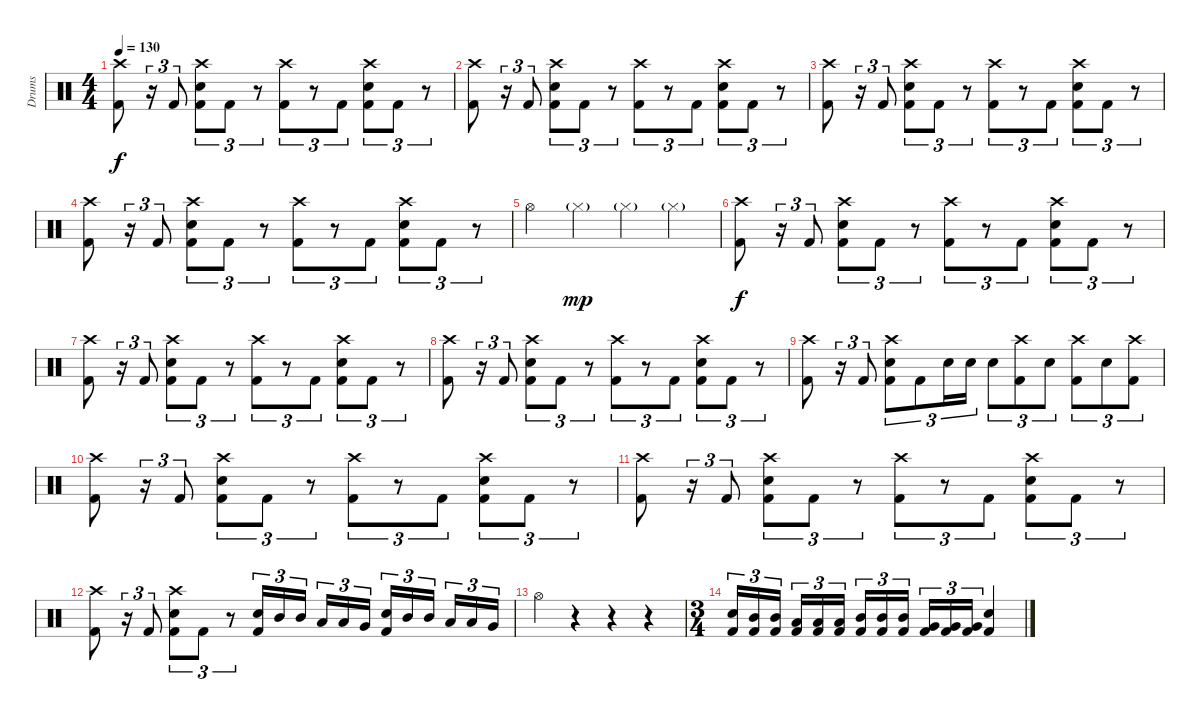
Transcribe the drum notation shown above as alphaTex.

\track ("Drums" "Drums") {instrument percussion}
\staff {score}
\articulation defaults
\ts (4 4)
\tempo 130
\clef neutral
\ks c
("Crash high (hit)" "Kick (hit) 2").8{dy f} r.16{tu (3 2)} "Kick (hit) 2".8{tu (3 2)} ("Crash high (hit)" "Electric Snare (hit)" "Kick (hit) 2").8{tu (3 2)} "Kick (hit) 2".8{tu (3 2)} r.8{tu (3 2)} ("Crash high (hit)" "Kick (hit) 2").8{tu (3 2)} r.8{tu (3 2)} "Kick (hit) 2".8{tu (3 2)} ("Crash high (hit)" "Electric Snare (hit)" "Kick (hit) 2").8{tu (3 2)} "Kick (hit) 2".8{tu (3 2)} r.8{tu (3 2)} |
("Crash high (hit)" "Kick (hit) 2").8 r.16{tu (3 2)} "Kick (hit) 2".8{tu (3 2)} ("Crash high (hit)" "Electric Snare (hit)" "Kick (hit) 2").8{tu (3 2)} "Kick (hit) 2".8{tu (3 2)} r.8{tu (3 2)} ("Crash high (hit)" "Kick (hit) 2").8{tu (3 2)} r.8{tu (3 2)} "Kick (hit) 2".8{tu (3 2)} ("Crash high (hit)" "Electric Snare (hit)" "Kick (hit) 2").8{tu (3 2)} "Kick (hit) 2".8{tu (3 2)} r.8{tu (3 2)} |
("Crash high (hit)" "Kick (hit) 2").8 r.16{tu (3 2)} "Kick (hit) 2".8{tu (3 2)} ("Crash high (hit)" "Electric Snare (hit)" "Kick (hit) 2").8{tu (3 2)} "Kick (hit) 2".8{tu (3 2)} r.8{tu (3 2)} ("Crash high (hit)" "Kick (hit) 2").8{tu (3 2)} r.8{tu (3 2)} "Kick (hit) 2".8{tu (3 2)} ("Crash high (hit)" "Electric Snare (hit)" "Kick (hit) 2").8{tu (3 2)} "Kick (hit) 2".8{tu (3 2)} r.8{tu (3 2)} |
("Crash high (hit)" "Kick (hit) 2").8 r.16{tu (3 2)} "Kick (hit) 2".8{tu (3 2)} ("Crash high (hit)" "Electric Snare (hit)" "Kick (hit) 2").8{tu (3 2)} "Kick (hit) 2".8{tu (3 2)} r.8{tu (3 2)} ("Crash high (hit)" "Kick (hit) 2").8{tu (3 2)} r.8{tu (3 2)} "Kick (hit) 2".8{tu (3 2)} ("Crash high (hit)" "Electric Snare (hit)" "Kick (hit) 2").8{tu (3 2)} "Kick (hit) 2".8{tu (3 2)} r.8{tu (3 2)} |
"Hi-Hat (open)".4 "Hi-Hat (closed)"{g}.4{dy mp} "Hi-Hat (closed)"{g}.4 "Hi-Hat (closed)"{g}.4 |
("Crash high (hit)" "Kick (hit) 2").8{dy f} r.16{tu (3 2)} "Kick (hit) 2".8{tu (3 2)} ("Crash high (hit)" "Electric Snare (hit)" "Kick (hit) 2").8{tu (3 2)} "Kick (hit) 2".8{tu (3 2)} r.8{tu (3 2)} ("Crash high (hit)" "Kick (hit) 2").8{tu (3 2)} r.8{tu (3 2)} "Kick (hit) 2".8{tu (3 2)} ("Crash high (hit)" "Electric Snare (hit)" "Kick (hit) 2").8{tu (3 2)} "Kick (hit) 2".8{tu (3 2)} r.8{tu (3 2)} |
("Crash high (hit)" "Kick (hit) 2").8 r.16{tu (3 2)} "Kick (hit) 2".8{tu (3 2)} ("Crash high (hit)" "Electric Snare (hit)" "Kick (hit) 2").8{tu (3 2)} "Kick (hit) 2".8{tu (3 2)} r.8{tu (3 2)} ("Crash high (hit)" "Kick (hit) 2").8{tu (3 2)} r.8{tu (3 2)} "Kick (hit) 2".8{tu (3 2)} ("Crash high (hit)" "Electric Snare (hit)" "Kick (hit) 2").8{tu (3 2)} "Kick (hit) 2".8{tu (3 2)} r.8{tu (3 2)} |
("Crash high (hit)" "Kick (hit) 2").8 r.16{tu (3 2)} "Kick (hit) 2".8{tu (3 2)} ("Crash high (hit)" "Electric Snare (hit)" "Kick (hit) 2").8{tu (3 2)} "Kick (hit) 2".8{tu (3 2)} r.8{tu (3 2)} ("Crash high (hit)" "Kick (hit) 2").8{tu (3 2)} r.8{tu (3 2)} "Kick (hit) 2".8{tu (3 2)} ("Crash high (hit)" "Electric Snare (hit)" "Kick (hit) 2").8{tu (3 2)} "Kick (hit) 2".8{tu (3 2)} r.8{tu (3 2)} |
("Crash high (hit)" "Kick (hit) 2").8 r.16{tu (3 2)} "Kick (hit) 2".8{tu (3 2)} ("Crash high (hit)" "Electric Snare (hit)" "Kick (hit) 2").8{tu (3 2)} "Kick (hit) 2".8{tu (3 2)} "Electric Snare (hit)".16{tu (3 2)} "Electric Snare (hit)".16{tu (3 2)} "Electric Snare (hit)".8{tu (3 2)} ("Crash high (hit)" "Kick (hit) 2").8{tu (3 2)} "Electric Snare (hit)".8{tu (3 2)} ("Crash high (hit)" "Kick (hit) 2").8{tu (3 2)} "Electric Snare (hit)".8{tu (3 2)} ("Crash high (hit)" "Kick (hit) 2").8{tu (3 2)} |
("Crash high (hit)" "Kick (hit) 2").8 r.16{tu (3 2)} "Kick (hit) 2".8{tu (3 2)} ("Crash high (hit)" "Electric Snare (hit)" "Kick (hit) 2").8{tu (3 2)} "Kick (hit) 2".8{tu (3 2)} r.8{tu (3 2)} ("Crash high (hit)" "Kick (hit) 2").8{tu (3 2)} r.8{tu (3 2)} "Kick (hit) 2".8{tu (3 2)} ("Crash high (hit)" "Electric Snare (hit)" "Kick (hit) 2").8{tu (3 2)} "Kick (hit) 2".8{tu (3 2)} r.8{tu (3 2)} |
("Crash high (hit)" "Kick (hit) 2").8 r.16{tu (3 2)} "Kick (hit) 2".8{tu (3 2)} ("Crash high (hit)" "Electric Snare (hit)" "Kick (hit) 2").8{tu (3 2)} "Kick (hit) 2".8{tu (3 2)} r.8{tu (3 2)} ("Crash high (hit)" "Kick (hit) 2").8{tu (3 2)} r.8{tu (3 2)} "Kick (hit) 2".8{tu (3 2)} ("Crash high (hit)" "Electric Snare (hit)" "Kick (hit) 2").8{tu (3 2)} "Kick (hit) 2".8{tu (3 2)} r.8{tu (3 2)} |
("Crash high (hit)" "Kick (hit) 2").8 r.16{tu (3 2)} "Kick (hit) 2".8{tu (3 2)} ("Crash high (hit)" "Electric Snare (hit)" "Kick (hit) 2").8{tu (3 2)} "Kick (hit) 2".8{tu (3 2)} r.8{tu (3 2)} ("Electric Snare (hit)" "Kick (hit) 2").16{tu (3 2)} "Mid Tom (hit)".16{tu (3 2)} "Mid Tom (hit)".16{tu (3 2) beam splitsecondary} "Low Tom (hit)".16{tu (3 2)} "Low Tom (hit)".16{tu (3 2)} "Very Low Tom (hit)".16{tu (3 2)} ("Electric Snare (hit)" "Kick (hit) 2").16{tu (3 2)} "Mid Tom (hit)".16{tu (3 2)} "Mid Tom (hit)".16{tu (3 2) beam splitsecondary} "Low Tom (hit)".16{tu (3 2)} "Low Tom (hit)".16{tu (3 2)} "Very Low Tom (hit)".16{tu (3 2)} |
"Hi-Hat (open)".4 r.4 r.4 r.4 |
\ts (3 4)
("Electric Snare (hit)" "Kick (hit) 2").16{tu (3 2)} ("Mid Tom (hit)" "Kick (hit) 2").16{tu (3 2)} ("Mid Tom (hit)" "Kick (hit) 2").16{tu (3 2) beam splitsecondary} ("Low Tom (hit)" "Kick (hit) 2").16{tu (3 2)} ("Low Tom (hit)" "Kick (hit) 2").16{tu (3 2)} ("Low Tom (hit)" "Kick (hit) 2").16{tu (3 2)} ("Mid Tom (hit)" "Kick (hit) 2").16{tu (3 2)} ("Mid Tom (hit)" "Kick (hit) 2").16{tu (3 2)} ("Mid Tom (hit)" "Kick (hit) 2").16{tu (3 2) beam splitsecondary} ("Very Low Tom (hit)" "Kick (hit) 2").16{tu (3 2)} ("Very Low Tom (hit)" "Kick (hit) 2").16{tu (3 2)} ("Very Low Tom (hit)" "Kick (hit) 2").16{tu (3 2)} ("Electric Snare (hit)" "Kick (hit) 2").4
